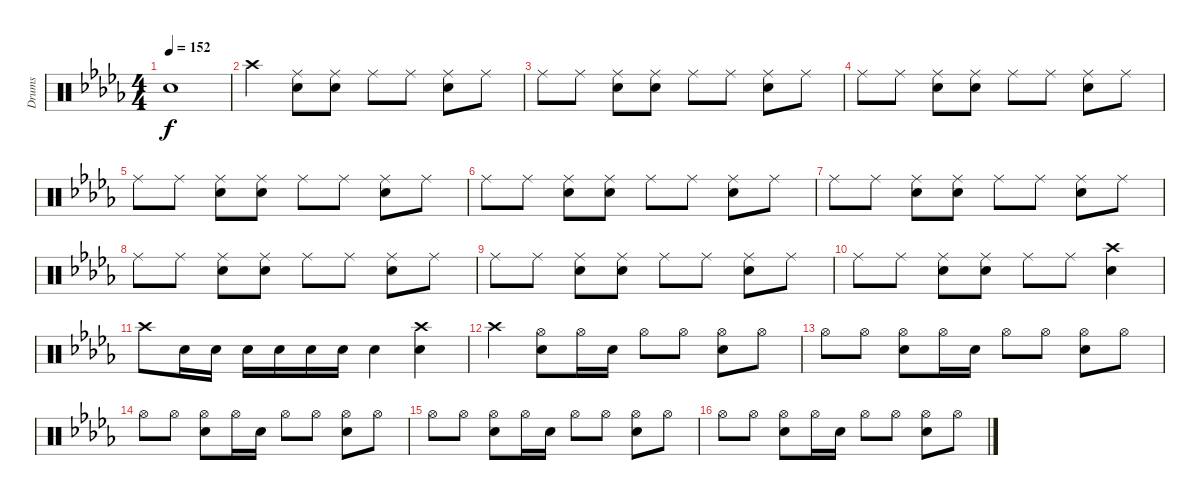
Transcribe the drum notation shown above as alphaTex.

\track ("Drums" "Drums") {instrument percussion}
\staff {score}
\articulation defaults
\ts (4 4)
\tempo 152
\clef neutral
\ks db "Snare (hit)"{t}.1{dy f}
|
"Crash high (hit)".4 ("Ride (middle)" "Snare (hit) 2").8 ("Ride (middle)" "Snare (hit) 2").8 "Ride (middle)".8 "Ride (middle)".8 ("Ride (middle)" "Snare (hit) 2").8 "Ride (middle)".8 |
"Ride (middle)".8 "Ride (middle)".8 ("Ride (middle)" "Snare (hit) 2").8 ("Ride (middle)" "Snare (hit) 2").8 "Ride (middle)".8 "Ride (middle)".8 ("Ride (middle)" "Snare (hit) 2").8 "Ride (middle)".8 |
"Ride (middle)".8 "Ride (middle)".8 ("Ride (middle)" "Snare (hit) 2").8 ("Ride (middle)" "Snare (hit) 2").8 "Ride (middle)".8 "Ride (middle)".8 ("Ride (middle)" "Snare (hit) 2").8 "Ride (middle)".8 |
"Ride (middle)".8 "Ride (middle)".8 ("Ride (middle)" "Snare (hit) 2").8 ("Ride (middle)" "Snare (hit) 2").8 "Ride (middle)".8 "Ride (middle)".8 ("Ride (middle)" "Snare (hit) 2").8 "Ride (middle)".8 |
"Ride (middle)".8 "Ride (middle)".8 ("Ride (middle)" "Snare (hit) 2").8 ("Ride (middle)" "Snare (hit) 2").8 "Ride (middle)".8 "Ride (middle)".8 ("Ride (middle)" "Snare (hit) 2").8 "Ride (middle)".8 |
"Ride (middle)".8 "Ride (middle)".8 ("Ride (middle)" "Snare (hit) 2").8 ("Ride (middle)" "Snare (hit) 2").8 "Ride (middle)".8 "Ride (middle)".8 ("Ride (middle)" "Snare (hit) 2").8 "Ride (middle)".8 |
"Ride (middle)".8 "Ride (middle)".8 ("Ride (middle)" "Snare (hit) 2").8 ("Ride (middle)" "Snare (hit) 2").8 "Ride (middle)".8 "Ride (middle)".8 ("Ride (middle)" "Snare (hit) 2").8 "Ride (middle)".8 |
"Ride (middle)".8 "Ride (middle)".8 ("Ride (middle)" "Snare (hit) 2").8 ("Ride (middle)" "Snare (hit) 2").8 "Ride (middle)".8 "Ride (middle)".8 ("Ride (middle)" "Snare (hit) 2").8 "Ride (middle)".8 |
"Ride (middle)".8 "Ride (middle)".8 ("Ride (middle)" "Snare (hit) 2").8 ("Ride (middle)" "Snare (hit) 2").8 "Ride (middle)".8 "Ride (middle)".8 ("Crash high (hit)" "Snare (hit) 2").4 |
"Crash high (hit)".8 "Snare (hit) 2".16 "Snare (hit) 2".16 "Snare (hit) 2".16 "Snare (hit) 2".16 "Snare (hit) 2".16 "Snare (hit) 2".16 "Snare (hit) 2".4 ("Crash high (hit)" "Snare (hit) 2").4 |
"Crash high (hit)".4 ("Hi-Hat (open)" "Snare (hit) 2").8 "Hi-Hat (open)".16 "Snare (hit) 2".16 "Hi-Hat (open)".8 "Hi-Hat (open)".8 ("Hi-Hat (open)" "Snare (hit) 2").8 "Hi-Hat (open)".8 |
"Hi-Hat (open)".8 "Hi-Hat (open)".8 ("Hi-Hat (open)" "Snare (hit) 2").8 "Hi-Hat (open)".16 "Snare (hit) 2".16 "Hi-Hat (open)".8 "Hi-Hat (open)".8 ("Hi-Hat (open)" "Snare (hit) 2").8 "Hi-Hat (open)".8 |
"Hi-Hat (open)".8 "Hi-Hat (open)".8 ("Hi-Hat (open)" "Snare (hit) 2").8 "Hi-Hat (open)".16 "Snare (hit) 2".16 "Hi-Hat (open)".8 "Hi-Hat (open)".8 ("Hi-Hat (open)" "Snare (hit) 2").8 "Hi-Hat (open)".8 |
"Hi-Hat (open)".8 "Hi-Hat (open)".8 ("Hi-Hat (open)" "Snare (hit) 2").8 "Hi-Hat (open)".16 "Snare (hit) 2".16 "Hi-Hat (open)".8 "Hi-Hat (open)".8 ("Hi-Hat (open)" "Snare (hit) 2").8 "Hi-Hat (open)".8 |
"Hi-Hat (open)".8 "Hi-Hat (open)".8 ("Hi-Hat (open)" "Snare (hit) 2").8 "Hi-Hat (open)".16 "Snare (hit) 2".16 "Hi-Hat (open)".8 "Hi-Hat (open)".8 ("Hi-Hat (open)" "Snare (hit) 2").8 "Hi-Hat (open)".8
